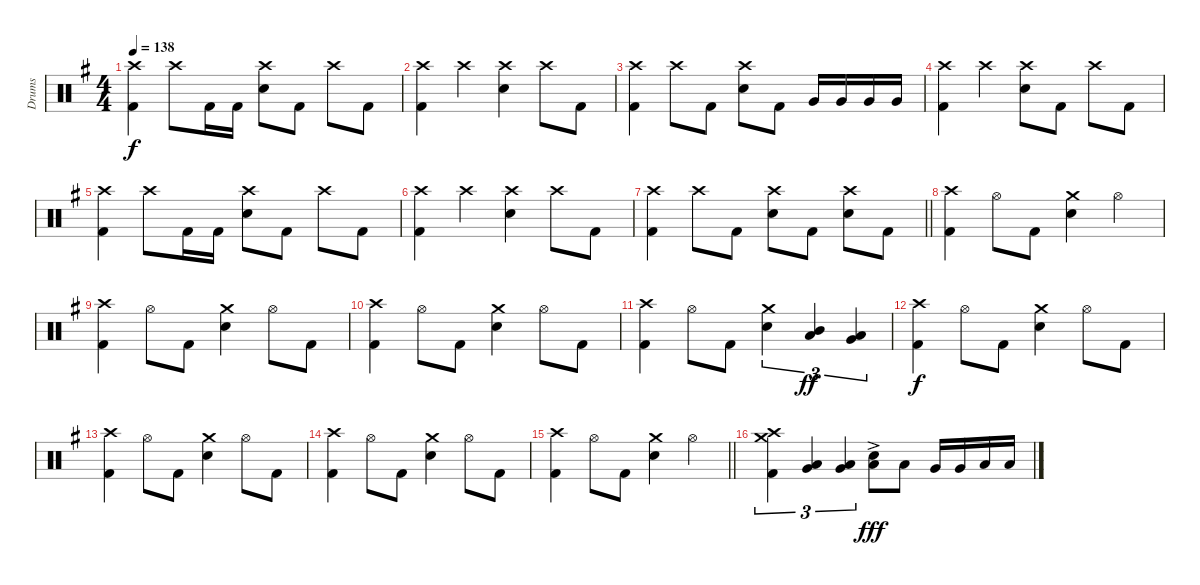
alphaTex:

\track ("Drums" "Drums") {instrument percussion}
\staff {score}
\articulation defaults
\ts (4 4)
\tempo 138
\clef neutral
\ks eminor
("Crash high (hit)" "Kick (hit) 2").4{dy f} "Crash high (hit)".8 "Kick (hit) 2".16 "Kick (hit) 2".16 ("Crash high (hit)" "Snare (hit) 2").8 "Kick (hit) 2".8 "Crash high (hit)".8 "Kick (hit) 2".8 |
("Crash high (hit)" "Kick (hit) 2").4 "Crash high (hit)".4 ("Crash high (hit)" "Snare (hit) 2").4 "Crash high (hit)".8 "Kick (hit) 2".8 |
("Crash high (hit)" "Kick (hit) 2").4 "Crash high (hit)".8 "Kick (hit) 2".8 ("Crash high (hit)" "Snare (hit) 2").8 "Kick (hit) 2".8 "Very Low Tom (hit)".16 "Very Low Tom (hit)".16 "Very Low Tom (hit)".16 "Very Low Tom (hit)".16 |
("Crash high (hit)" "Kick (hit) 2").4 "Crash high (hit)".4 ("Crash high (hit)" "Snare (hit) 2").8 "Kick (hit) 2".8 "Crash high (hit)".8 "Kick (hit) 2".8 |
("Crash high (hit)" "Kick (hit) 2").4 "Crash high (hit)".8 "Kick (hit) 2".16 "Kick (hit) 2".16 ("Crash high (hit)" "Snare (hit) 2").8 "Kick (hit) 2".8 "Crash high (hit)".8 "Kick (hit) 2".8 |
("Crash high (hit)" "Kick (hit) 2").4 "Crash high (hit)".4 ("Crash high (hit)" "Snare (hit) 2").4 "Crash high (hit)".8 "Kick (hit) 2".8 |
\barLineRight lightlight
("Crash high (hit)" "Kick (hit) 2").4 "Crash high (hit)".8 "Kick (hit) 2".8 ("Crash high (hit)" "Snare (hit) 2").8 "Kick (hit) 2".8 ("Crash high (hit)" "Snare (hit) 2").8 "Kick (hit) 2".8 |
("Crash high (hit)" "Kick (hit) 2").4 "Hi-Hat (open)".8 "Kick (hit) 2".8 ("Crash medium (hit)" "Snare (hit) 2").4 "Hi-Hat (open)".4 |
("Crash high (hit)" "Kick (hit) 2").4 "Hi-Hat (open)".8 "Kick (hit) 2".8 ("Crash medium (hit)" "Snare (hit) 2").4 "Hi-Hat (open)".8 "Kick (hit) 2".8 |
("Crash high (hit)" "Kick (hit) 2").4 "Hi-Hat (open)".8 "Kick (hit) 2".8 ("Crash medium (hit)" "Snare (hit) 2").4 "Hi-Hat (open)".8 "Kick (hit) 2".8 |
("Crash high (hit)" "Kick (hit) 2").4 "Hi-Hat (open)".8 "Kick (hit) 2".8 ("Crash medium (hit)" "Snare (hit) 2").4{tu (3 2)} ("Mid Tom (hit)" "Low Tom (hit)").4{tu (3 2) dy ff} ("Low Tom (hit)" "Very Low Tom (hit)").4{tu (3 2)} |
("Crash high (hit)" "Kick (hit) 2").4{dy f} "Hi-Hat (open)".8 "Kick (hit) 2".8 ("Crash medium (hit)" "Snare (hit) 2").4 "Hi-Hat (open)".8 "Kick (hit) 2".8 |
("Crash high (hit)" "Kick (hit) 2").4 "Hi-Hat (open)".8 "Kick (hit) 2".8 ("Crash medium (hit)" "Snare (hit) 2").4 "Hi-Hat (open)".8 "Kick (hit) 2".8 |
("Crash high (hit)" "Kick (hit) 2").4 "Hi-Hat (open)".8 "Kick (hit) 2".8 ("Crash medium (hit)" "Snare (hit) 2").4 "Hi-Hat (open)".8 "Kick (hit) 2".8 |
\barLineRight lightlight
("Crash high (hit)" "Kick (hit) 2").4 "Hi-Hat (open)".8 "Kick (hit) 2".8 ("Crash medium (hit)" "Snare (hit) 2").4 "Hi-Hat (open)".4 |
("Crash high (hit)" "Crash medium (hit)" "Kick (hit) 2").4{tu (3 2)} ("Low Tom (hit)" "Very Low Tom (hit)").4{tu (3 2)} ("Very Low Tom (hit)" "Low Floor Tom (hit)").4{tu (3 2)} ("Snare (hit) 2"{ac} "Low Floor Tom (hit)").8{dy fff} "Low Tom (hit)".8 "Very Low Tom (hit)".16 "Very Low Tom (hit)".16 "Low Floor Tom (hit)".16 "Low Floor Tom (hit)".16
